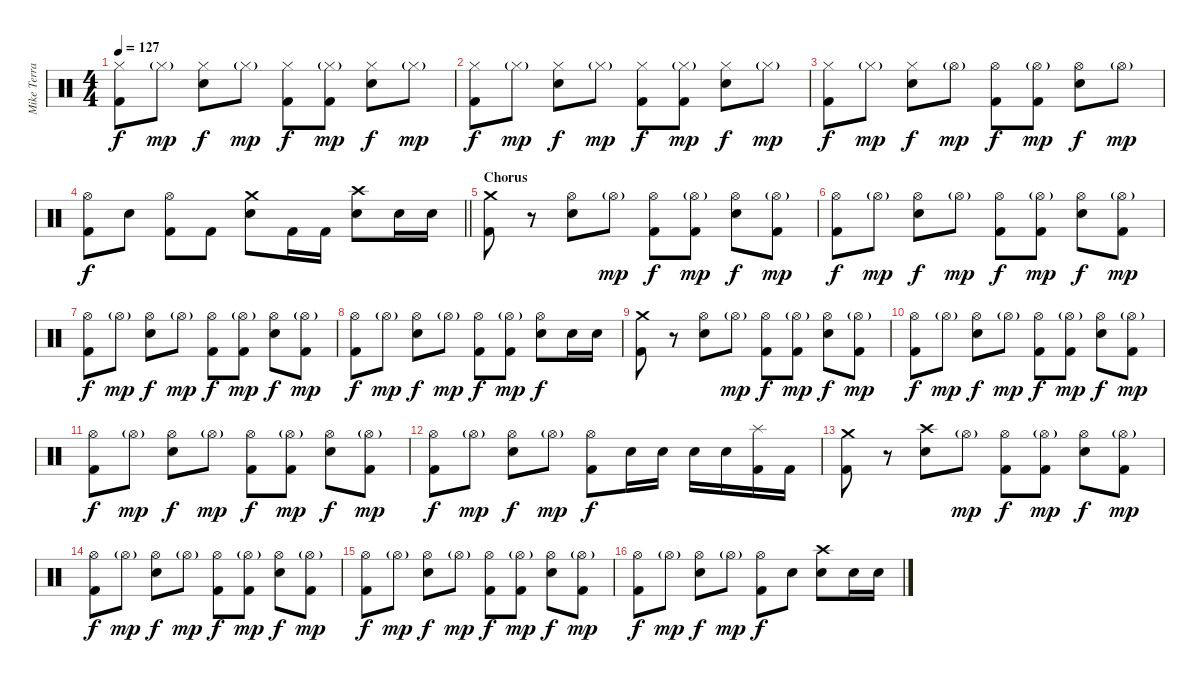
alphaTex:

\track ("Mike Terrana" "Mike Terra") {instrument percussion}
\staff {score}
\articulation defaults
\ts (4 4)
\tempo 127
\clef neutral
\ks c
("Hi-Hat (closed)" "Kick (hit) 2").8{dy f} "Hi-Hat (closed)"{g}.8{dy mp} ("Hi-Hat (closed)" "Snare (hit) 2").8{dy f} "Hi-Hat (closed)"{g}.8{dy mp} ("Hi-Hat (closed)" "Kick (hit) 2").8{dy f} ("Hi-Hat (closed)"{g} "Kick (hit) 2").8{dy mp} ("Hi-Hat (closed)" "Snare (hit) 2").8{dy f} "Hi-Hat (closed)"{g}.8{dy mp} |
("Hi-Hat (closed)" "Kick (hit) 2").8{dy f} "Hi-Hat (closed)"{g}.8{dy mp} ("Hi-Hat (closed)" "Snare (hit) 2").8{dy f} "Hi-Hat (closed)"{g}.8{dy mp} ("Hi-Hat (closed)" "Kick (hit) 2").8{dy f} ("Hi-Hat (closed)"{g} "Kick (hit) 2").8{dy mp} ("Hi-Hat (closed)" "Snare (hit) 2").8{dy f} "Hi-Hat (closed)"{g}.8{dy mp} |
("Hi-Hat (closed)" "Kick (hit) 2").8{dy f} "Hi-Hat (closed)"{g}.8{dy mp} ("Hi-Hat (closed)" "Snare (hit) 2").8{dy f} "Hi-Hat (open)"{g}.8{dy mp} ("Hi-Hat (open)" "Kick (hit) 2").8{dy f} ("Hi-Hat (open)"{g} "Kick (hit) 2").8{dy mp} ("Hi-Hat (open)" "Snare (hit) 2").8{dy f} "Hi-Hat (open)"{g}.8{dy mp} |
\barLineRight lightlight
("Hi-Hat (open)" "Kick (hit) 2").8{dy f} "Snare (hit) 2".8 ("Hi-Hat (open)" "Kick (hit) 2").8 "Kick (hit) 2".8 ("Crash medium (hit)" "Snare (hit) 2").8 "Kick (hit) 2".16 "Kick (hit) 2".16 ("Crash high (hit)" "Snare (hit) 2").8 "Snare (hit) 2".16 "Snare (hit) 2".16 |
\section ("" "Chorus")
("Crash medium (hit)" "Kick (hit) 2").8 r.8 ("Hi-Hat (open)" "Snare (hit) 2").8 "Hi-Hat (open)"{g}.8{dy mp} ("Hi-Hat (open)" "Kick (hit) 2").8{dy f} ("Hi-Hat (open)"{g} "Kick (hit) 2").8{dy mp} ("Hi-Hat (open)" "Snare (hit) 2").8{dy f} ("Hi-Hat (open)"{g} "Kick (hit) 2").8{dy mp} |
("Hi-Hat (open)" "Kick (hit) 2").8{dy f} "Hi-Hat (open)"{g}.8{dy mp} ("Hi-Hat (open)" "Snare (hit) 2").8{dy f} "Hi-Hat (open)"{g}.8{dy mp} ("Hi-Hat (open)" "Kick (hit) 2").8{dy f} ("Hi-Hat (open)"{g} "Kick (hit) 2").8{dy mp} ("Hi-Hat (open)" "Snare (hit) 2").8{dy f} ("Hi-Hat (open)"{g} "Kick (hit) 2").8{dy mp} |
("Hi-Hat (open)" "Kick (hit) 2").8{dy f} "Hi-Hat (open)"{g}.8{dy mp} ("Hi-Hat (open)" "Snare (hit) 2").8{dy f} "Hi-Hat (open)"{g}.8{dy mp} ("Hi-Hat (open)" "Kick (hit) 2").8{dy f} ("Hi-Hat (open)"{g} "Kick (hit) 2").8{dy mp} ("Hi-Hat (open)" "Snare (hit) 2").8{dy f} ("Hi-Hat (open)"{g} "Kick (hit) 2").8{dy mp} |
("Hi-Hat (open)" "Kick (hit) 2").8{dy f} "Hi-Hat (open)"{g}.8{dy mp} ("Hi-Hat (open)" "Snare (hit) 2").8{dy f} "Hi-Hat (open)"{g}.8{dy mp} ("Hi-Hat (open)" "Kick (hit) 2").8{dy f} ("Hi-Hat (open)"{g} "Kick (hit) 2").8{dy mp} ("Hi-Hat (open)" "Snare (hit) 2").8{dy f} "Snare (hit) 2".16 "Snare (hit) 2".16 |
("Crash medium (hit)" "Kick (hit) 2").8 r.8 ("Hi-Hat (open)" "Snare (hit) 2").8 "Hi-Hat (open)"{g}.8{dy mp} ("Hi-Hat (open)" "Kick (hit) 2").8{dy f} ("Hi-Hat (open)"{g} "Kick (hit) 2").8{dy mp} ("Hi-Hat (open)" "Snare (hit) 2").8{dy f} ("Hi-Hat (open)"{g} "Kick (hit) 2").8{dy mp} |
("Hi-Hat (open)" "Kick (hit) 2").8{dy f} "Hi-Hat (open)"{g}.8{dy mp} ("Hi-Hat (open)" "Snare (hit) 2").8{dy f} "Hi-Hat (open)"{g}.8{dy mp} ("Hi-Hat (open)" "Kick (hit) 2").8{dy f} ("Hi-Hat (open)"{g} "Kick (hit) 2").8{dy mp} ("Hi-Hat (open)" "Snare (hit) 2").8{dy f} ("Hi-Hat (open)"{g} "Kick (hit) 2").8{dy mp} |
("Hi-Hat (open)" "Kick (hit) 2").8{dy f} "Hi-Hat (open)"{g}.8{dy mp} ("Hi-Hat (open)" "Snare (hit) 2").8{dy f} "Hi-Hat (open)"{g}.8{dy mp} ("Hi-Hat (open)" "Kick (hit) 2").8{dy f} ("Hi-Hat (open)"{g} "Kick (hit) 2").8{dy mp} ("Hi-Hat (open)" "Snare (hit) 2").8{dy f} ("Hi-Hat (open)"{g} "Kick (hit) 2").8{dy mp} |
("Hi-Hat (open)" "Kick (hit) 2").8{dy f} "Hi-Hat (open)"{g}.8{dy mp} ("Hi-Hat (open)" "Snare (hit) 2").8{dy f} "Hi-Hat (open)"{g}.8{dy mp} ("Hi-Hat (open)" "Kick (hit) 2").8{dy f} "Snare (hit) 2".16 "Snare (hit) 2".16 "Snare (hit) 2".16 "Snare (hit) 2".16 ("Splash (hit)" "Kick (hit) 2").16 "Kick (hit) 2".16 |
("Crash medium (hit)" "Kick (hit) 2").8 r.8 ("Crash high (hit)" "Snare (hit) 2").8 "Hi-Hat (open)"{g}.8{dy mp} ("Hi-Hat (open)" "Kick (hit) 2").8{dy f} ("Hi-Hat (open)"{g} "Kick (hit) 2").8{dy mp} ("Hi-Hat (open)" "Snare (hit) 2").8{dy f} ("Hi-Hat (open)"{g} "Kick (hit) 2").8{dy mp} |
("Hi-Hat (open)" "Kick (hit) 2").8{dy f} "Hi-Hat (open)"{g}.8{dy mp} ("Hi-Hat (open)" "Snare (hit) 2").8{dy f} "Hi-Hat (open)"{g}.8{dy mp} ("Hi-Hat (open)" "Kick (hit) 2").8{dy f} ("Hi-Hat (open)"{g} "Kick (hit) 2").8{dy mp} ("Hi-Hat (open)" "Snare (hit) 2").8{dy f} ("Hi-Hat (open)"{g} "Kick (hit) 2").8{dy mp} |
("Hi-Hat (open)" "Kick (hit) 2").8{dy f} "Hi-Hat (open)"{g}.8{dy mp} ("Hi-Hat (open)" "Snare (hit) 2").8{dy f} "Hi-Hat (open)"{g}.8{dy mp} ("Hi-Hat (open)" "Kick (hit) 2").8{dy f} ("Hi-Hat (open)"{g} "Kick (hit) 2").8{dy mp} ("Hi-Hat (open)" "Snare (hit) 2").8{dy f} ("Hi-Hat (open)"{g} "Kick (hit) 2").8{dy mp} |
("Hi-Hat (open)" "Kick (hit) 2").8{dy f} "Hi-Hat (open)"{g}.8{dy mp} ("Hi-Hat (open)" "Snare (hit) 2").8{dy f} "Hi-Hat (open)"{g}.8{dy mp} ("Hi-Hat (open)" "Kick (hit) 2").8{dy f} "Snare (hit) 2".8 ("Crash high (hit)" "Snare (hit) 2").8 "Snare (hit) 2".16 "Snare (hit) 2".16
